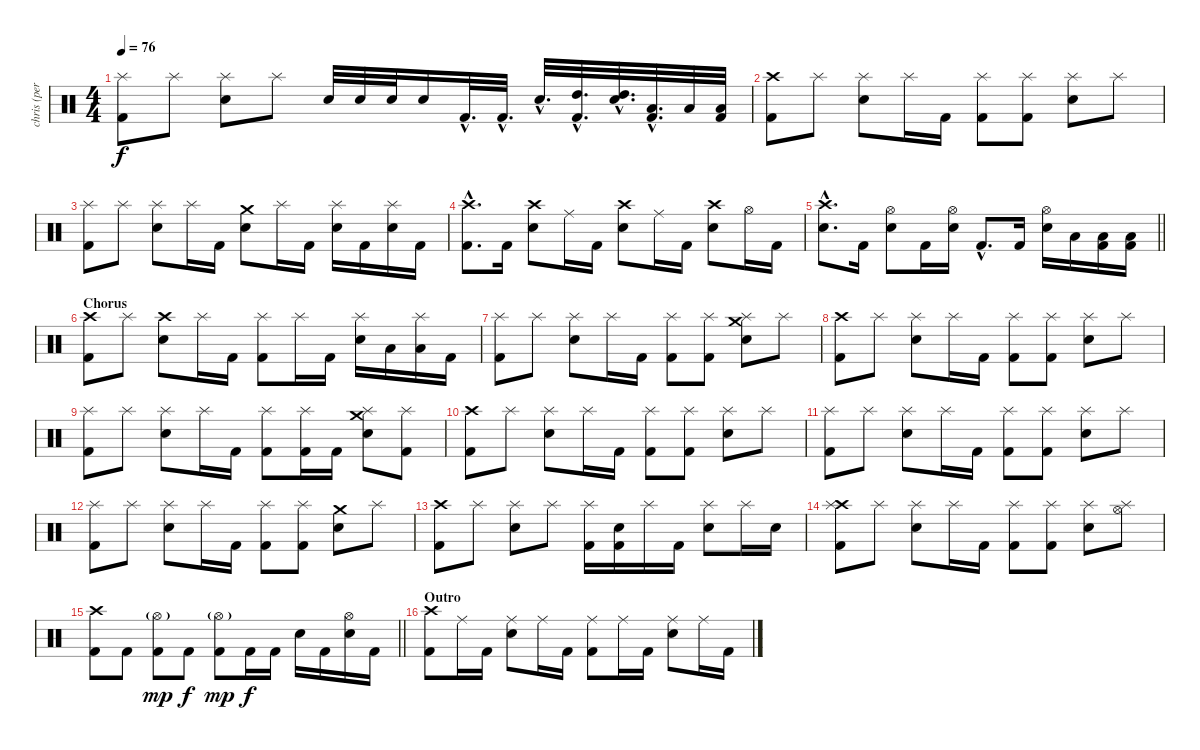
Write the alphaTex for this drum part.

\track ("chris (percussion)" "chris (per") {instrument percussion}
\staff {score}
\articulation defaults
\ts (4 4)
\tempo 76
\clef neutral
\ks c
("Splash (hit)" "Kick (hit) 2").8{dy f} "Splash (hit)".8 ("Splash (hit)" "Electric Snare (hit)").8 "Splash (hit)".8 "Electric Snare (hit)".32 "Electric Snare (hit)".32 "Electric Snare (hit)".32 "Electric Snare (hit)".16 "Kick (hit) 2"{hac}.32{d} "Kick (hit) 2"{hac}.32{d} "Electric Snare (hit)"{hac}.32{d} ("High Tom (hit)"{hac} "Kick (hit) 2"{hac}).32{d} ("High Tom (hit)"{hac} "Electric Snare (hit)"{hac}).32{d} ("Low Floor Tom (hit)"{hac} "Kick (hit) 2"{hac}).32{d} "Low Floor Tom (hit)".32 ("Low Floor Tom (hit)" "Kick (hit) 2").32 |
("Crash high (hit)" "Kick (hit) 2").8 "Splash (hit)".8 ("Splash (hit)" "Electric Snare (hit)").8 "Splash (hit)".16 "Kick (hit) 2".16 ("Splash (hit)" "Kick (hit) 2").8 ("Splash (hit)" "Kick (hit) 2").8 ("Electric Snare (hit)" "Splash (hit)").8 "Splash (hit)".8 |
("Splash (hit)" "Kick (hit) 2").8 "Splash (hit)".8 ("Splash (hit)" "Electric Snare (hit)").8 "Splash (hit)".16 "Kick (hit) 2".16 ("Crash medium (hit)" "Electric Snare (hit)").8 "Splash (hit)".16 "Kick (hit) 2".16 ("Electric Snare (hit)" "Splash (hit)").16 "Kick (hit) 2".16 ("Splash (hit)" "Electric Snare (hit)").16 "Kick (hit) 2".16 |
("Kick (hit) 2"{hac} "Crash high (hit)"{hac}).8{d} "Kick (hit) 2".16 ("Electric Snare (hit)" "Crash high (hit)").8 "Ride (middle)".16 "Kick (hit) 2".16 ("Electric Snare (hit)" "Crash high (hit)").8 "Ride (middle)".16 "Kick (hit) 2".16 ("Electric Snare (hit)" "Crash high (hit)").8 "Hi-Hat (open)".16 "Kick (hit) 2".16 |
\barLineRight lightlight
("Electric Snare (hit)"{hac} "Crash high (hit)"{hac}).8{d} "Kick (hit) 2".16 ("Electric Snare (hit)" "Hi-Hat (open)").8 "Kick (hit) 2".16 ("Electric Snare (hit)" "Hi-Hat (open)").16 "Kick (hit) 2"{hac}.8{d} "Kick (hit) 2".16 ("Hi-Hat (open)" "Electric Snare (hit)").16 "Low Floor Tom (hit)".16 ("Low Floor Tom (hit)" "Kick (hit) 2").16 ("Low Floor Tom (hit)" "Kick (hit) 2").16 |
\section ("" "Chorus")
("Crash high (hit)" "Kick (hit) 2").8{volume 16} "Splash (hit)".8 ("Crash high (hit)" "Electric Snare (hit)").8 "Splash (hit)".16 "Kick (hit) 2".16 ("Splash (hit)" "Kick (hit) 2").8 "Splash (hit)".16 "Kick (hit) 2".16 ("Electric Snare (hit)" "Splash (hit)").16 "Low Floor Tom (hit)".16 ("Low Floor Tom (hit)" "Splash (hit)").16 "Kick (hit) 2".16 |
("Splash (hit)" "Kick (hit) 2").8 "Splash (hit)".8 ("Splash (hit)" "Electric Snare (hit)").8 "Splash (hit)".16 "Kick (hit) 2".16 ("Splash (hit)" "Kick (hit) 2").8 ("Splash (hit)" "Kick (hit) 2").8 ("Electric Snare (hit)" "Splash (hit)" "Crash medium (hit)").8 "Splash (hit)".8 |
("Crash high (hit)" "Kick (hit) 2").8 "Splash (hit)".8 ("Splash (hit)" "Electric Snare (hit)").8 "Splash (hit)".16 "Kick (hit) 2".16 ("Splash (hit)" "Kick (hit) 2").8 ("Splash (hit)" "Kick (hit) 2").8 ("Electric Snare (hit)" "Splash (hit)").8 "Splash (hit)".8 |
("Splash (hit)" "Kick (hit) 2").8 "Splash (hit)".8 ("Splash (hit)" "Electric Snare (hit)").8 "Splash (hit)".16 "Kick (hit) 2".16 ("Splash (hit)" "Kick (hit) 2").8 ("Splash (hit)" "Kick (hit) 2").16 "Kick (hit) 2".16 ("Electric Snare (hit)" "Splash (hit)" "Crash medium (hit)").8 ("Splash (hit)" "Kick (hit) 2").8 |
("Crash high (hit)" "Kick (hit) 2").8 "Splash (hit)".8 ("Splash (hit)" "Electric Snare (hit)").8 "Splash (hit)".16 "Kick (hit) 2".16 ("Splash (hit)" "Kick (hit) 2").8 ("Splash (hit)" "Kick (hit) 2").8 ("Electric Snare (hit)" "Splash (hit)").8 "Splash (hit)".8 |
("Splash (hit)" "Kick (hit) 2").8 "Splash (hit)".8 ("Splash (hit)" "Electric Snare (hit)").8 "Splash (hit)".16 "Kick (hit) 2".16 ("Splash (hit)" "Kick (hit) 2").8 ("Splash (hit)" "Kick (hit) 2").8 ("Electric Snare (hit)" "Splash (hit)").8 "Splash (hit)".8 |
("Splash (hit)" "Kick (hit) 2").8 "Splash (hit)".8 ("Splash (hit)" "Electric Snare (hit)").8 "Splash (hit)".16 "Kick (hit) 2".16 ("Splash (hit)" "Kick (hit) 2").8 ("Splash (hit)" "Kick (hit) 2").8 ("Electric Snare (hit)" "Crash medium (hit)").8 "Splash (hit)".8 |
("Crash high (hit)" "Kick (hit) 2").8 "Splash (hit)".8 ("Splash (hit)" "Electric Snare (hit)").8 "Splash (hit)".8 ("Splash (hit)" "Kick (hit) 2").16 ("Electric Snare (hit)" "Kick (hit) 2").16 "Splash (hit)".16 "Kick (hit) 2".16 ("Electric Snare (hit)" "Splash (hit)").8 "Splash (hit)".16 "Electric Snare (hit)".16 |
("Crash high (hit)" "Splash (hit)" "Kick (hit) 2").8 "Splash (hit)".8 ("Splash (hit)" "Electric Snare (hit)").8 "Splash (hit)".16 "Kick (hit) 2".16 ("Splash (hit)" "Kick (hit) 2").8 ("Splash (hit)" "Kick (hit) 2").8 ("Electric Snare (hit)" "Splash (hit)").8 ("Hi-Hat (open)" "Splash (hit)").8 |
\barLineRight lightlight
("Crash high (hit)" "Kick (hit) 2").8 "Kick (hit) 2".8{volume 14} ("Hi-Hat (open)"{g} "Kick (hit) 2").8{dy mp} "Kick (hit) 2".8{dy f} ("Hi-Hat (open)"{g} "Kick (hit) 2").8{dy mp} "Kick (hit) 2".16{dy f} "Kick (hit) 2".16 "Electric Snare (hit)".16 "Kick (hit) 2".16 ("Hi-Hat (open)" "Electric Snare (hit)").16 "Kick (hit) 2".16 |
\section ("" "Outro")
("Crash high (hit)" "Kick (hit) 2").8{volume 16} "Ride (middle)".16 "Kick (hit) 2".16 ("Electric Snare (hit)" "Ride (middle)").8 "Ride (middle)".16 "Kick (hit) 2".16 ("Ride (middle)" "Kick (hit) 2").8 "Ride (middle)".16 "Kick (hit) 2".16 ("Electric Snare (hit)" "Ride (middle)").8 "Ride (middle)".16 "Kick (hit) 2".16
